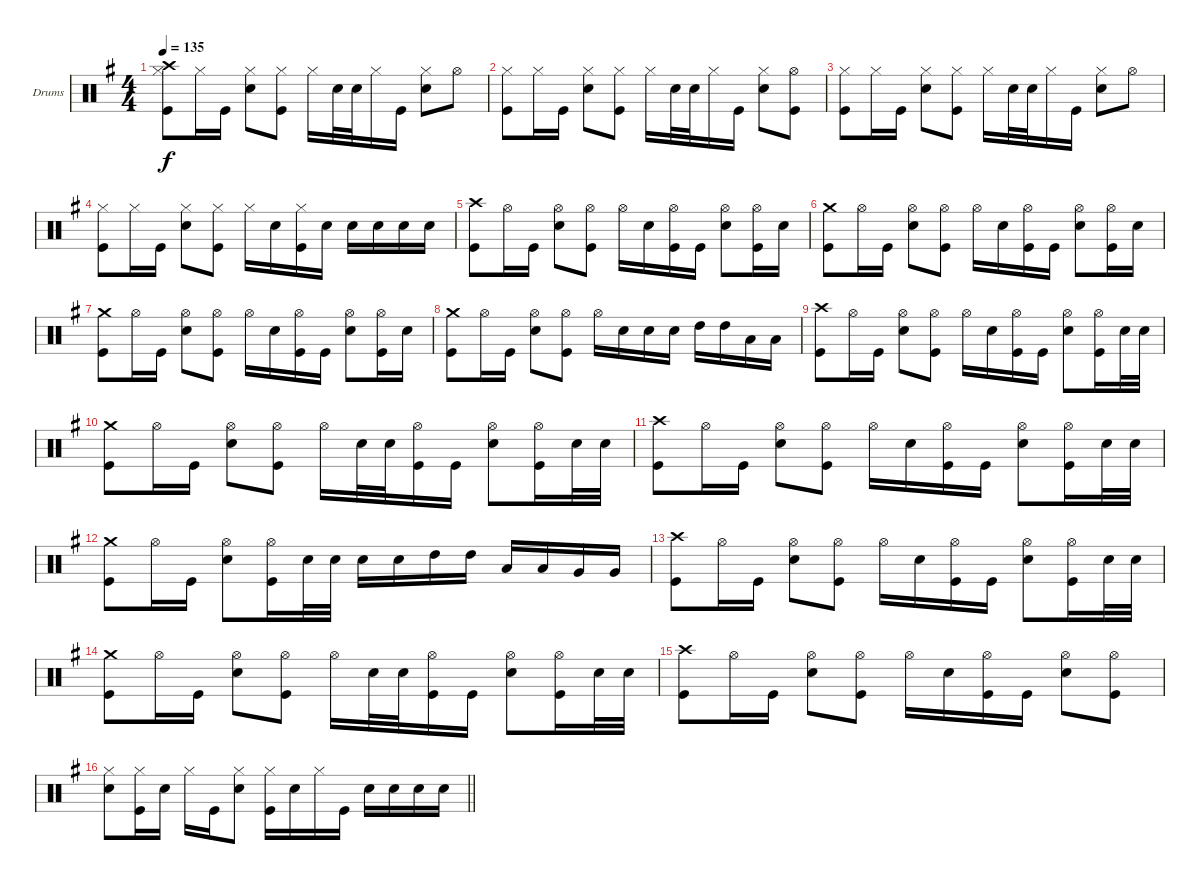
\bracketExtendMode groupsimilarinstruments
\firstSystemTrackNameOrientation horizontal
\otherSystemsTrackNameOrientation horizontal
\track ("drums (Anton Zulganov)" "Drums") {instrument percussion}
\staff {score}
\articulation defaults
\ts (4 4)
\tempo 135
\clef neutral
\ks eminor
("Kick (hit)" "Crash high (hit)" "Hi-Hat (closed)").8{dy f} "Hi-Hat (closed)".16 "Kick (hit)".16 ("Snare (hit) 2" "Hi-Hat (closed)").8 ("Kick (hit)" "Hi-Hat (closed)").8 "Hi-Hat (closed)".16 "Snare (hit) 2".32 "Snare (hit) 2".32 "Hi-Hat (closed)".16 "Kick (hit)".16 ("Snare (hit) 2" "Hi-Hat (closed)").8 "Hi-Hat (open)".8 |
("Kick (hit)" "Hi-Hat (closed)").8 "Hi-Hat (closed)".16 "Kick (hit)".16 ("Snare (hit) 2" "Hi-Hat (closed)").8 ("Kick (hit)" "Hi-Hat (closed)").8 "Hi-Hat (closed)".16 "Snare (hit) 2".32 "Snare (hit) 2".32 "Hi-Hat (closed)".16 "Kick (hit)".16 ("Snare (hit) 2" "Hi-Hat (closed)").8 ("Hi-Hat (open)" "Kick (hit)").8 |
("Kick (hit)" "Hi-Hat (closed)").8 "Hi-Hat (closed)".16 "Kick (hit)".16 ("Snare (hit) 2" "Hi-Hat (closed)").8 ("Kick (hit)" "Hi-Hat (closed)").8 "Hi-Hat (closed)".16 "Snare (hit) 2".32 "Snare (hit) 2".32 "Hi-Hat (closed)".16 "Kick (hit)".16 ("Snare (hit) 2" "Hi-Hat (closed)").8 "Hi-Hat (open)".8 |
("Kick (hit)" "Hi-Hat (closed)").8 "Hi-Hat (closed)".16 "Kick (hit)".16 ("Snare (hit) 2" "Hi-Hat (closed)").8 ("Kick (hit)" "Hi-Hat (closed)").8 "Hi-Hat (closed)".16 "Snare (hit) 2".16 ("Kick (hit)" "Hi-Hat (closed)").16 "Snare (hit) 2".16 "Snare (hit) 2".16 "Snare (hit) 2".16 "Snare (hit) 2".16 "Snare (hit) 2".16 |
("Kick (hit)" "Crash high (hit)").8 "Hi-Hat (open)".16 "Kick (hit)".16 ("Snare (hit) 2" "Hi-Hat (open)").8 ("Kick (hit)" "Hi-Hat (open)").8 "Hi-Hat (open)".16 "Snare (hit) 2".16 ("Kick (hit)" "Hi-Hat (open)").16 "Kick (hit)".16 ("Snare (hit) 2" "Hi-Hat (open)").8 ("Kick (hit)" "Hi-Hat (open)").16 "Snare (hit) 2".16 |
("Kick (hit)" "Crash medium (hit)").8 "Hi-Hat (open)".16 "Kick (hit)".16 ("Snare (hit) 2" "Hi-Hat (open)").8 ("Kick (hit)" "Hi-Hat (open)").8 "Hi-Hat (open)".16 "Snare (hit) 2".16 ("Kick (hit)" "Hi-Hat (open)").16 "Kick (hit)".16 ("Snare (hit) 2" "Hi-Hat (open)").8 ("Kick (hit)" "Hi-Hat (open)").16 "Snare (hit) 2".16 |
("Kick (hit)" "Crash medium (hit)").8 "Hi-Hat (open)".16 "Kick (hit)".16 ("Snare (hit) 2" "Hi-Hat (open)").8 ("Kick (hit)" "Hi-Hat (open)").8 "Hi-Hat (open)".16 "Snare (hit) 2".16 ("Kick (hit)" "Hi-Hat (open)").16 "Kick (hit)".16 ("Snare (hit) 2" "Hi-Hat (open)").8 ("Kick (hit)" "Hi-Hat (open)").16 "Snare (hit) 2".16 |
("Kick (hit)" "Crash medium (hit)").8 "Hi-Hat (open)".16 "Kick (hit)".16 ("Snare (hit) 2" "Hi-Hat (open)").8 ("Kick (hit)" "Hi-Hat (open)").8 "Hi-Hat (open)".16 "Snare (hit) 2".16 "Snare (hit) 2".16 "Snare (hit) 2".16 "High Tom (hit)".16 "High Tom (hit)".16 "Low Tom (hit)".16 "Low Tom (hit)".16 |
("Kick (hit)" "Crash high (hit)").8 "Hi-Hat (open)".16 "Kick (hit)".16 ("Snare (hit) 2" "Hi-Hat (open)").8 ("Kick (hit)" "Hi-Hat (open)").8 "Hi-Hat (open)".16 "Snare (hit) 2".16 ("Kick (hit)" "Hi-Hat (open)").16 "Kick (hit)".16 ("Snare (hit) 2" "Hi-Hat (open)").8 ("Kick (hit)" "Hi-Hat (open)").16 "Snare (hit) 2".32 "Snare (hit) 2".32 |
("Kick (hit)" "Crash medium (hit)").8 "Hi-Hat (open)".16 "Kick (hit)".16 ("Snare (hit) 2" "Hi-Hat (open)").8 ("Kick (hit)" "Hi-Hat (open)").8 "Hi-Hat (open)".16 "Snare (hit) 2".32 "Snare (hit) 2".32 ("Kick (hit)" "Hi-Hat (open)").16 "Kick (hit)".16 ("Snare (hit) 2" "Hi-Hat (open)").8 ("Kick (hit)" "Hi-Hat (open)").16 "Snare (hit) 2".32 "Snare (hit) 2".32 |
("Kick (hit)" "Crash high (hit)").8 "Hi-Hat (open)".16 "Kick (hit)".16 ("Snare (hit) 2" "Hi-Hat (open)").8 ("Kick (hit)" "Hi-Hat (open)").8 "Hi-Hat (open)".16 "Snare (hit) 2".16 ("Kick (hit)" "Hi-Hat (open)").16 "Kick (hit)".16 ("Snare (hit) 2" "Hi-Hat (open)").8 ("Kick (hit)" "Hi-Hat (open)").16 "Snare (hit) 2".32 "Snare (hit) 2".32 |
("Kick (hit)" "Crash medium (hit)").8 "Hi-Hat (open)".16 "Kick (hit)".16 ("Snare (hit) 2" "Hi-Hat (open)").8 ("Kick (hit)" "Hi-Hat (open)").16 "Snare (hit) 2".32 "Snare (hit) 2".32 "Snare (hit) 2".16 "Snare (hit) 2".16 "High Tom (hit)".16 "High Tom (hit)".16 "Low Tom (hit)".16 "Low Tom (hit)".16 "Very Low Tom (hit)".16 "Very Low Tom (hit)".16 |
("Kick (hit)" "Crash high (hit)").8 "Hi-Hat (open)".16 "Kick (hit)".16 ("Snare (hit) 2" "Hi-Hat (open)").8 ("Kick (hit)" "Hi-Hat (open)").8 "Hi-Hat (open)".16 "Snare (hit) 2".16 ("Kick (hit)" "Hi-Hat (open)").16 "Kick (hit)".16 ("Snare (hit) 2" "Hi-Hat (open)").8 ("Kick (hit)" "Hi-Hat (open)").16 "Snare (hit) 2".32 "Snare (hit) 2".32 |
("Kick (hit)" "Crash medium (hit)").8 "Hi-Hat (open)".16 "Kick (hit)".16 ("Snare (hit) 2" "Hi-Hat (open)").8 ("Kick (hit)" "Hi-Hat (open)").8 "Hi-Hat (open)".16 "Snare (hit) 2".32 "Snare (hit) 2".32 ("Kick (hit)" "Hi-Hat (open)").16 "Kick (hit)".16 ("Snare (hit) 2" "Hi-Hat (open)").8 ("Kick (hit)" "Hi-Hat (open)").16 "Snare (hit) 2".32 "Snare (hit) 2".32 |
("Kick (hit)" "Crash high (hit)").8 "Hi-Hat (open)".16 "Kick (hit)".16 ("Snare (hit) 2" "Hi-Hat (open)").8 ("Kick (hit)" "Hi-Hat (open)").8 "Hi-Hat (open)".16 "Snare (hit) 2".16 ("Kick (hit)" "Hi-Hat (open)").16 "Kick (hit)".16 ("Snare (hit) 2" "Hi-Hat (open)").8 ("Kick (hit)" "Hi-Hat (open)").8 |
\barLineRight lightlight
("Snare (hit) 2" "Hi-Hat (closed)").8 ("Hi-Hat (closed)" "Kick (hit)").16 "Snare (hit) 2".16 "Hi-Hat (closed)".16 "Kick (hit)".16 ("Hi-Hat (closed)" "Snare (hit) 2").8 ("Hi-Hat (closed)" "Kick (hit)").16 "Snare (hit) 2".16 "Hi-Hat (closed)".16 "Kick (hit)".16 "Snare (hit) 2".16 "Snare (hit) 2".16 "Snare (hit) 2".16 "Snare (hit) 2".16
